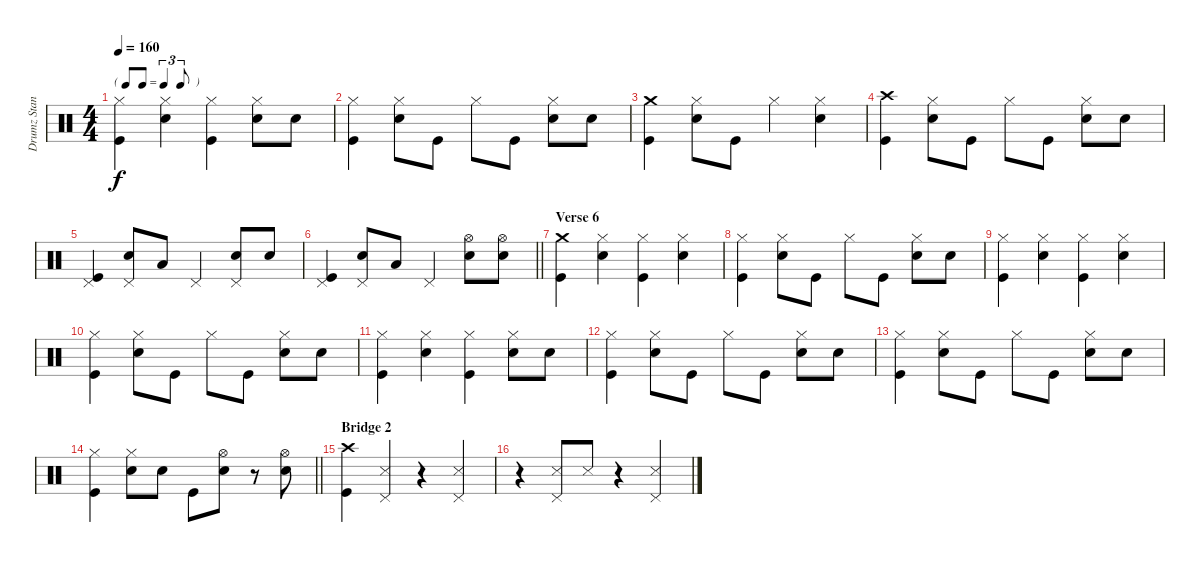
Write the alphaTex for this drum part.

\track ("Drumz Standard" "Drumz Stan") {instrument percussion}
\staff {score}
\articulation defaults
\ts (4 4)
\tf triplet8th
\tempo 160
\clef neutral
\ks c
("Hi-Hat (closed)" "Kick (hit)").4{dy f} ("Hi-Hat (closed)" "Electric Snare (hit)").4 ("Hi-Hat (closed)" "Kick (hit)").4 ("Hi-Hat (closed)" "Electric Snare (hit)").8 "Electric Snare (hit)".8 |
("Hi-Hat (closed)" "Kick (hit)").4 ("Hi-Hat (closed)" "Electric Snare (hit)").8 "Kick (hit)".8 "Hi-Hat (closed)".8 "Kick (hit)".8 ("Hi-Hat (closed)" "Electric Snare (hit)").8 "Electric Snare (hit)".8 |
("Crash medium (hit)" "Kick (hit)").4 ("Hi-Hat (closed)" "Electric Snare (hit)").8 "Kick (hit)".8 "Hi-Hat (closed)".4 ("Hi-Hat (closed)" "Electric Snare (hit)").4 |
("Crash high (hit)" "Kick (hit)").4 ("Hi-Hat (closed)" "Electric Snare (hit)").8 "Kick (hit)".8 "Hi-Hat (closed)".8 "Kick (hit)".8 ("Hi-Hat (closed)" "Electric Snare (hit)").8 "Electric Snare (hit)".8 |
("Pedal Hi-Hat (hit)" "Kick (hit)").4 ("Pedal Hi-Hat (hit)" "Electric Snare (hit)").8 "Low Tom (hit)".8 "Pedal Hi-Hat (hit)".4 ("Pedal Hi-Hat (hit)" "Electric Snare (hit)").8 "Electric Snare (hit)".8 |
\barLineRight lightlight
("Pedal Hi-Hat (hit)" "Kick (hit)").4 ("Pedal Hi-Hat (hit)" "Electric Snare (hit)").8 "Low Tom (hit)".8 "Pedal Hi-Hat (hit)".4 ("Hi-Hat (open)" "Electric Snare (hit)").8 ("Hi-Hat (open)" "Electric Snare (hit)").8 |
\section ("" "Verse 6")
("Crash medium (hit)" "Kick (hit)").4 ("Hi-Hat (closed)" "Electric Snare (hit)").4 ("Hi-Hat (closed)" "Kick (hit)").4 ("Hi-Hat (closed)" "Electric Snare (hit)").4 |
("Hi-Hat (closed)" "Kick (hit)").4 ("Hi-Hat (closed)" "Electric Snare (hit)").8 "Kick (hit)".8 "Hi-Hat (closed)".8 "Kick (hit)".8 ("Hi-Hat (closed)" "Electric Snare (hit)").8 "Electric Snare (hit)".8 |
("Hi-Hat (closed)" "Kick (hit)").4 ("Hi-Hat (closed)" "Electric Snare (hit)").4 ("Hi-Hat (closed)" "Kick (hit)").4 ("Hi-Hat (closed)" "Electric Snare (hit)").4 |
("Hi-Hat (closed)" "Kick (hit)").4 ("Hi-Hat (closed)" "Electric Snare (hit)").8 "Kick (hit)".8 "Hi-Hat (closed)".8 "Kick (hit)".8 ("Hi-Hat (closed)" "Electric Snare (hit)").8 "Electric Snare (hit)".8 |
("Hi-Hat (closed)" "Kick (hit)").4 ("Hi-Hat (closed)" "Electric Snare (hit)").4 ("Hi-Hat (closed)" "Kick (hit)").4 ("Hi-Hat (closed)" "Electric Snare (hit)").8 "Electric Snare (hit)".8 |
("Hi-Hat (closed)" "Kick (hit)").4 ("Hi-Hat (closed)" "Electric Snare (hit)").8 "Kick (hit)".8 "Hi-Hat (closed)".8 "Kick (hit)".8 ("Hi-Hat (closed)" "Electric Snare (hit)").8 "Electric Snare (hit)".8 |
("Hi-Hat (closed)" "Kick (hit)").4 ("Hi-Hat (closed)" "Electric Snare (hit)").8 "Kick (hit)".8 "Hi-Hat (closed)".8 "Kick (hit)".8 ("Hi-Hat (closed)" "Electric Snare (hit)").8 "Electric Snare (hit)".8 |
\barLineRight lightlight
("Hi-Hat (closed)" "Kick (hit)").4 ("Hi-Hat (closed)" "Electric Snare (hit)").8 "Electric Snare (hit)".8 "Kick (hit)".8 ("Hi-Hat (open)" "Electric Snare (hit)").8 r.8 ("Hi-Hat (open)" "Electric Snare (hit)").8 |
\section ("" "Bridge 2")
("Crash high (hit)" "Kick (hit)").4 ("Pedal Hi-Hat (hit)" "Snare (side stick) 3").4 r.4 ("Pedal Hi-Hat (hit)" "Snare (side stick) 3").4 |
r.4 ("Pedal Hi-Hat (hit)" "Snare (side stick) 3").8 "Snare (side stick) 3".8 r.4 ("Pedal Hi-Hat (hit)" "Snare (side stick) 3").4
